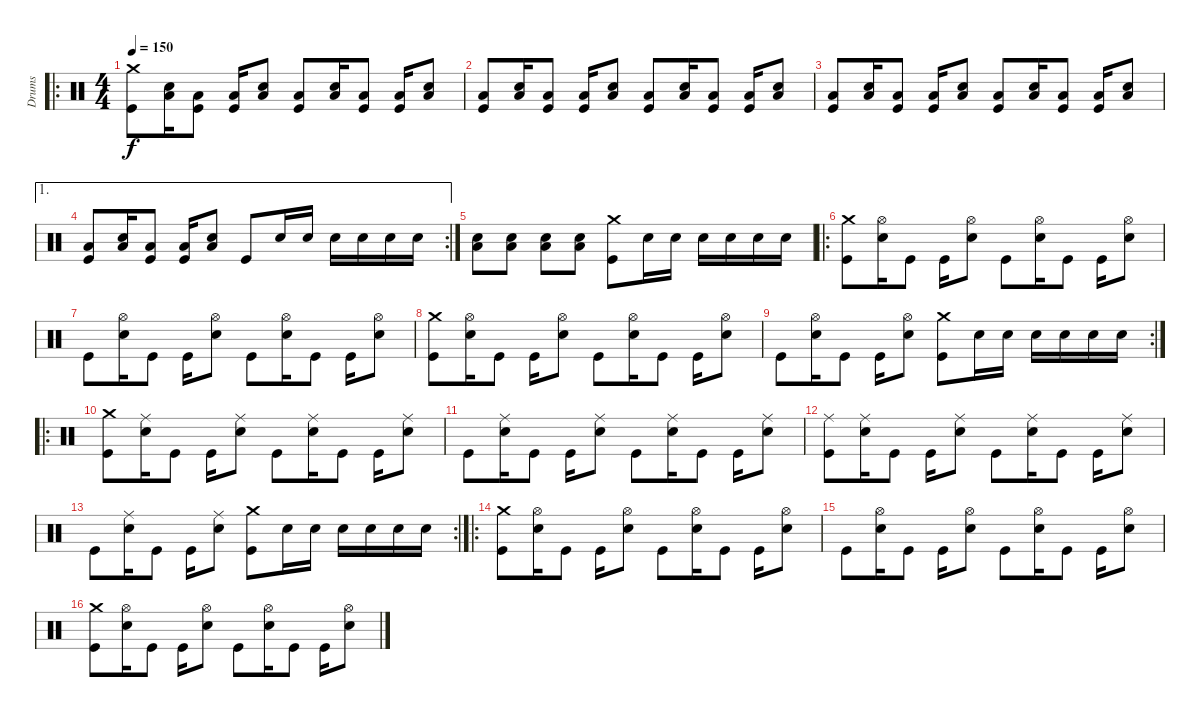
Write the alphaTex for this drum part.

\track ("Drums" "Drums") {instrument percussion}
\staff {score}
\articulation defaults
\ro
\ts (4 4)
\tempo 150
\clef neutral
\ks c
("Crash medium (hit)" "Kick (hit)").8{dy f} ("Low Floor Tom (hit)" "Electric Snare (hit)").16 ("Low Floor Tom (hit)" "Kick (hit)").8 ("Low Floor Tom (hit)" "Kick (hit)").16 ("Low Floor Tom (hit)" "Electric Snare (hit)").8 ("Low Floor Tom (hit)" "Kick (hit)").8 ("Low Floor Tom (hit)" "Electric Snare (hit)").16 ("Low Floor Tom (hit)" "Kick (hit)").8 ("Low Floor Tom (hit)" "Kick (hit)").16 ("Low Floor Tom (hit)" "Electric Snare (hit)").8 |
("Low Floor Tom (hit)" "Kick (hit)").8 ("Low Floor Tom (hit)" "Electric Snare (hit)").16 ("Low Floor Tom (hit)" "Kick (hit)").8 ("Low Floor Tom (hit)" "Kick (hit)").16 ("Low Floor Tom (hit)" "Electric Snare (hit)").8 ("Low Floor Tom (hit)" "Kick (hit)").8 ("Low Floor Tom (hit)" "Electric Snare (hit)").16 ("Low Floor Tom (hit)" "Kick (hit)").8 ("Low Floor Tom (hit)" "Kick (hit)").16 ("Low Floor Tom (hit)" "Electric Snare (hit)").8 |
("Low Floor Tom (hit)" "Kick (hit)").8 ("Low Floor Tom (hit)" "Electric Snare (hit)").16 ("Low Floor Tom (hit)" "Kick (hit)").8 ("Low Floor Tom (hit)" "Kick (hit)").16 ("Low Floor Tom (hit)" "Electric Snare (hit)").8 ("Low Floor Tom (hit)" "Kick (hit)").8 ("Low Floor Tom (hit)" "Electric Snare (hit)").16 ("Low Floor Tom (hit)" "Kick (hit)").8 ("Low Floor Tom (hit)" "Kick (hit)").16 ("Low Floor Tom (hit)" "Electric Snare (hit)").8 |
\ae 1
\rc 2
("Low Floor Tom (hit)" "Kick (hit)").8 ("Low Floor Tom (hit)" "Electric Snare (hit)").16 ("Low Floor Tom (hit)" "Kick (hit)").8 ("Low Floor Tom (hit)" "Kick (hit)").16 ("Low Floor Tom (hit)" "Electric Snare (hit)").8 "Kick (hit)".8 "Electric Snare (hit)".16 "Electric Snare (hit)".16 "Electric Snare (hit)".16 "Electric Snare (hit)".16 "Electric Snare (hit)".16 "Electric Snare (hit)".16 |
("Electric Snare (hit)" "Low Floor Tom (hit)").8 ("Electric Snare (hit)" "Low Floor Tom (hit)").8 ("Electric Snare (hit)" "Low Floor Tom (hit)").8 ("Electric Snare (hit)" "Low Floor Tom (hit)").8 ("Crash medium (hit)" "Kick (hit)").8 "Electric Snare (hit)".16 "Electric Snare (hit)".16 "Electric Snare (hit)".16 "Electric Snare (hit)".16 "Electric Snare (hit)".16 "Electric Snare (hit)".16 |
\ro
("Crash medium (hit)" "Kick (hit)").8 ("Hi-Hat (open)" "Electric Snare (hit)").16 "Kick (hit)".8 "Kick (hit)".16 ("Hi-Hat (open)" "Electric Snare (hit)").8 "Kick (hit)".8 ("Hi-Hat (open)" "Electric Snare (hit)").16 "Kick (hit)".8 "Kick (hit)".16 ("Hi-Hat (open)" "Electric Snare (hit)").8 |
"Kick (hit)".8 ("Hi-Hat (open)" "Electric Snare (hit)").16 "Kick (hit)".8 "Kick (hit)".16 ("Hi-Hat (open)" "Electric Snare (hit)").8 "Kick (hit)".8 ("Hi-Hat (open)" "Electric Snare (hit)").16 "Kick (hit)".8 "Kick (hit)".16 ("Hi-Hat (open)" "Electric Snare (hit)").8 |
("Crash medium (hit)" "Kick (hit)").8 ("Hi-Hat (open)" "Electric Snare (hit)").16 "Kick (hit)".8 "Kick (hit)".16 ("Hi-Hat (open)" "Electric Snare (hit)").8 "Kick (hit)".8 ("Hi-Hat (open)" "Electric Snare (hit)").16 "Kick (hit)".8 "Kick (hit)".16 ("Hi-Hat (open)" "Electric Snare (hit)").8 |
\rc 2 "Kick (hit)".8
("Hi-Hat (open)" "Electric Snare (hit)").16 "Kick (hit)".8 "Kick (hit)".16 ("Hi-Hat (open)" "Electric Snare (hit)").8 ("Crash medium (hit)" "Kick (hit)").8 "Electric Snare (hit)".16 "Electric Snare (hit)".16 "Electric Snare (hit)".16 "Electric Snare (hit)".16 "Electric Snare (hit)".16 "Electric Snare (hit)".16 |
\ro
("Crash medium (hit)" "Kick (hit)").8 ("Ride (middle)" "Electric Snare (hit)").16 "Kick (hit)".8 "Kick (hit)".16 ("Ride (middle)" "Electric Snare (hit)").8 "Kick (hit)".8 ("Ride (middle)" "Electric Snare (hit)").16 "Kick (hit)".8 "Kick (hit)".16 ("Ride (middle)" "Electric Snare (hit)").8 |
"Kick (hit)".8 ("Ride (middle)" "Electric Snare (hit)").16 "Kick (hit)".8 "Kick (hit)".16 ("Ride (middle)" "Electric Snare (hit)").8 "Kick (hit)".8 ("Ride (middle)" "Electric Snare (hit)").16 "Kick (hit)".8 "Kick (hit)".16 ("Ride (middle)" "Electric Snare (hit)").8 |
("Ride (middle)" "Kick (hit)").8 ("Ride (middle)" "Electric Snare (hit)").16 "Kick (hit)".8 "Kick (hit)".16 ("Ride (middle)" "Electric Snare (hit)").8 "Kick (hit)".8 ("Ride (middle)" "Electric Snare (hit)").16 "Kick (hit)".8 "Kick (hit)".16 ("Ride (middle)" "Electric Snare (hit)").8 |
\rc 2 "Kick (hit)".8
("Ride (middle)" "Electric Snare (hit)").16 "Kick (hit)".8 "Kick (hit)".16 ("Ride (middle)" "Electric Snare (hit)").8 ("Crash medium (hit)" "Kick (hit)").8 "Electric Snare (hit)".16 "Electric Snare (hit)".16 "Electric Snare (hit)".16 "Electric Snare (hit)".16 "Electric Snare (hit)".16 "Electric Snare (hit)".16 |
\ro
("Crash medium (hit)" "Kick (hit)").8 ("Hi-Hat (open)" "Electric Snare (hit)").16 "Kick (hit)".8 "Kick (hit)".16 ("Hi-Hat (open)" "Electric Snare (hit)").8 "Kick (hit)".8 ("Hi-Hat (open)" "Electric Snare (hit)").16 "Kick (hit)".8 "Kick (hit)".16 ("Hi-Hat (open)" "Electric Snare (hit)").8 |
"Kick (hit)".8 ("Hi-Hat (open)" "Electric Snare (hit)").16 "Kick (hit)".8 "Kick (hit)".16 ("Hi-Hat (open)" "Electric Snare (hit)").8 "Kick (hit)".8 ("Hi-Hat (open)" "Electric Snare (hit)").16 "Kick (hit)".8 "Kick (hit)".16 ("Hi-Hat (open)" "Electric Snare (hit)").8 |
("Crash medium (hit)" "Kick (hit)").8 ("Hi-Hat (open)" "Electric Snare (hit)").16 "Kick (hit)".8 "Kick (hit)".16 ("Hi-Hat (open)" "Electric Snare (hit)").8 "Kick (hit)".8 ("Hi-Hat (open)" "Electric Snare (hit)").16 "Kick (hit)".8 "Kick (hit)".16 ("Hi-Hat (open)" "Electric Snare (hit)").8
